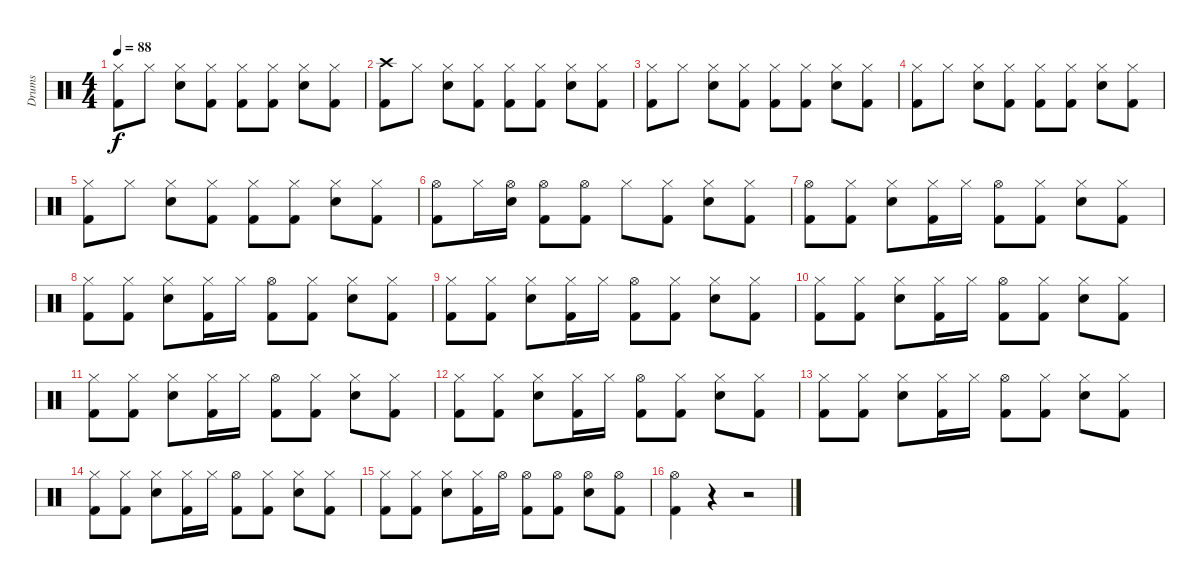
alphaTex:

\track ("Drums" "Drums") {instrument percussion}
\staff {score}
\articulation defaults
\ts (4 4)
\tempo 88
\clef neutral
\ks c
("Hi-Hat (closed)" "Kick (hit) 2").8{dy f} "Hi-Hat (closed)".8 ("Hi-Hat (closed)" "Electric Snare (hit)").8 ("Hi-Hat (closed)" "Kick (hit) 2").8 ("Hi-Hat (closed)" "Kick (hit) 2").8 ("Hi-Hat (closed)" "Kick (hit) 2").8 ("Hi-Hat (closed)" "Electric Snare (hit)").8 ("Hi-Hat (closed)" "Kick (hit) 2").8 |
("Crash high (hit)" "Kick (hit) 2").8 "Hi-Hat (closed)".8 ("Hi-Hat (closed)" "Electric Snare (hit)").8 ("Hi-Hat (closed)" "Kick (hit) 2").8 ("Hi-Hat (closed)" "Kick (hit) 2").8 ("Hi-Hat (closed)" "Kick (hit) 2").8 ("Hi-Hat (closed)" "Electric Snare (hit)").8 ("Hi-Hat (closed)" "Kick (hit) 2").8 |
("Hi-Hat (closed)" "Kick (hit) 2").8 "Hi-Hat (closed)".8 ("Hi-Hat (closed)" "Electric Snare (hit)").8 ("Hi-Hat (closed)" "Kick (hit) 2").8 ("Hi-Hat (closed)" "Kick (hit) 2").8 ("Hi-Hat (closed)" "Kick (hit) 2").8 ("Hi-Hat (closed)" "Electric Snare (hit)").8 ("Hi-Hat (closed)" "Kick (hit) 2").8 |
("Hi-Hat (closed)" "Kick (hit) 2").8 "Hi-Hat (closed)".8 ("Hi-Hat (closed)" "Electric Snare (hit)").8 ("Hi-Hat (closed)" "Kick (hit) 2").8 ("Hi-Hat (closed)" "Kick (hit) 2").8 ("Hi-Hat (closed)" "Kick (hit) 2").8 ("Hi-Hat (closed)" "Electric Snare (hit)").8 ("Hi-Hat (closed)" "Kick (hit) 2").8 |
("Hi-Hat (closed)" "Kick (hit) 2").8 "Hi-Hat (closed)".8 ("Hi-Hat (closed)" "Electric Snare (hit)").8 ("Hi-Hat (closed)" "Kick (hit) 2").8 ("Hi-Hat (closed)" "Kick (hit) 2").8 ("Hi-Hat (closed)" "Kick (hit) 2").8 ("Hi-Hat (closed)" "Electric Snare (hit)").8 ("Hi-Hat (closed)" "Kick (hit) 2").8 |
("Hi-Hat (open)" "Kick (hit) 2").8 "Hi-Hat (closed)".16 ("Hi-Hat (open)" "Electric Snare (hit)").16 ("Hi-Hat (open)" "Kick (hit) 2").8 ("Hi-Hat (open)" "Kick (hit) 2").8 "Hi-Hat (closed)".8 ("Hi-Hat (closed)" "Kick (hit) 2").8 ("Hi-Hat (closed)" "Electric Snare (hit)").8 ("Hi-Hat (closed)" "Kick (hit) 2").8 |
("Hi-Hat (open)" "Kick (hit) 2").8 ("Hi-Hat (closed)" "Kick (hit) 2").8 ("Hi-Hat (closed)" "Electric Snare (hit)").8 ("Hi-Hat (closed)" "Kick (hit) 2").16 "Hi-Hat (closed)".16 ("Hi-Hat (open)" "Kick (hit) 2").8 ("Hi-Hat (closed)" "Kick (hit) 2").8 ("Hi-Hat (closed)" "Electric Snare (hit)").8 ("Hi-Hat (closed)" "Kick (hit) 2").8 |
("Hi-Hat (closed)" "Kick (hit) 2").8 ("Hi-Hat (closed)" "Kick (hit) 2").8 ("Hi-Hat (closed)" "Electric Snare (hit)").8 ("Hi-Hat (closed)" "Kick (hit) 2").16 "Hi-Hat (closed)".16 ("Hi-Hat (open)" "Kick (hit) 2").8 ("Hi-Hat (closed)" "Kick (hit) 2").8 ("Hi-Hat (closed)" "Electric Snare (hit)").8 ("Hi-Hat (closed)" "Kick (hit) 2").8 |
("Hi-Hat (closed)" "Kick (hit) 2").8 ("Hi-Hat (closed)" "Kick (hit) 2").8 ("Hi-Hat (closed)" "Electric Snare (hit)").8 ("Hi-Hat (closed)" "Kick (hit) 2").16 "Hi-Hat (closed)".16 ("Hi-Hat (open)" "Kick (hit) 2").8 ("Hi-Hat (closed)" "Kick (hit) 2").8 ("Hi-Hat (closed)" "Electric Snare (hit)").8 ("Hi-Hat (closed)" "Kick (hit) 2").8 |
("Hi-Hat (closed)" "Kick (hit) 2").8 ("Hi-Hat (closed)" "Kick (hit) 2").8 ("Hi-Hat (closed)" "Electric Snare (hit)").8 ("Hi-Hat (closed)" "Kick (hit) 2").16 "Hi-Hat (closed)".16 ("Hi-Hat (open)" "Kick (hit) 2").8 ("Hi-Hat (closed)" "Kick (hit) 2").8 ("Hi-Hat (closed)" "Electric Snare (hit)").8 ("Hi-Hat (closed)" "Kick (hit) 2").8 |
("Hi-Hat (closed)" "Kick (hit) 2").8 ("Hi-Hat (closed)" "Kick (hit) 2").8 ("Hi-Hat (closed)" "Electric Snare (hit)").8 ("Hi-Hat (closed)" "Kick (hit) 2").16 "Hi-Hat (closed)".16 ("Hi-Hat (open)" "Kick (hit) 2").8 ("Hi-Hat (closed)" "Kick (hit) 2").8 ("Hi-Hat (closed)" "Electric Snare (hit)").8 ("Hi-Hat (closed)" "Kick (hit) 2").8 |
("Hi-Hat (closed)" "Kick (hit) 2").8 ("Hi-Hat (closed)" "Kick (hit) 2").8 ("Hi-Hat (closed)" "Electric Snare (hit)").8 ("Hi-Hat (closed)" "Kick (hit) 2").16 "Hi-Hat (closed)".16 ("Hi-Hat (open)" "Kick (hit) 2").8 ("Hi-Hat (closed)" "Kick (hit) 2").8 ("Hi-Hat (closed)" "Electric Snare (hit)").8 ("Hi-Hat (closed)" "Kick (hit) 2").8 |
("Hi-Hat (closed)" "Kick (hit) 2").8 ("Hi-Hat (closed)" "Kick (hit) 2").8 ("Hi-Hat (closed)" "Electric Snare (hit)").8 ("Hi-Hat (closed)" "Kick (hit) 2").16 "Hi-Hat (closed)".16 ("Hi-Hat (open)" "Kick (hit) 2").8 ("Hi-Hat (closed)" "Kick (hit) 2").8 ("Hi-Hat (closed)" "Electric Snare (hit)").8 ("Hi-Hat (closed)" "Kick (hit) 2").8 |
("Hi-Hat (closed)" "Kick (hit) 2").8 ("Hi-Hat (closed)" "Kick (hit) 2").8 ("Hi-Hat (closed)" "Electric Snare (hit)").8 ("Hi-Hat (closed)" "Kick (hit) 2").16 "Hi-Hat (closed)".16 ("Hi-Hat (open)" "Kick (hit) 2").8 ("Hi-Hat (closed)" "Kick (hit) 2").8 ("Hi-Hat (closed)" "Electric Snare (hit)").8 ("Hi-Hat (closed)" "Kick (hit) 2").8 |
("Hi-Hat (closed)" "Kick (hit) 2").8 ("Hi-Hat (closed)" "Kick (hit) 2").8 ("Hi-Hat (closed)" "Electric Snare (hit)").8 ("Hi-Hat (closed)" "Kick (hit) 2").16 "Hi-Hat (open)".16 ("Hi-Hat (open)" "Kick (hit) 2").8 ("Hi-Hat (open)" "Kick (hit) 2").8 ("Hi-Hat (open)" "Electric Snare (hit)").8 ("Hi-Hat (open)" "Kick (hit) 2").8 |
("Hi-Hat (open)" "Kick (hit) 2").4 r.4 r.2
